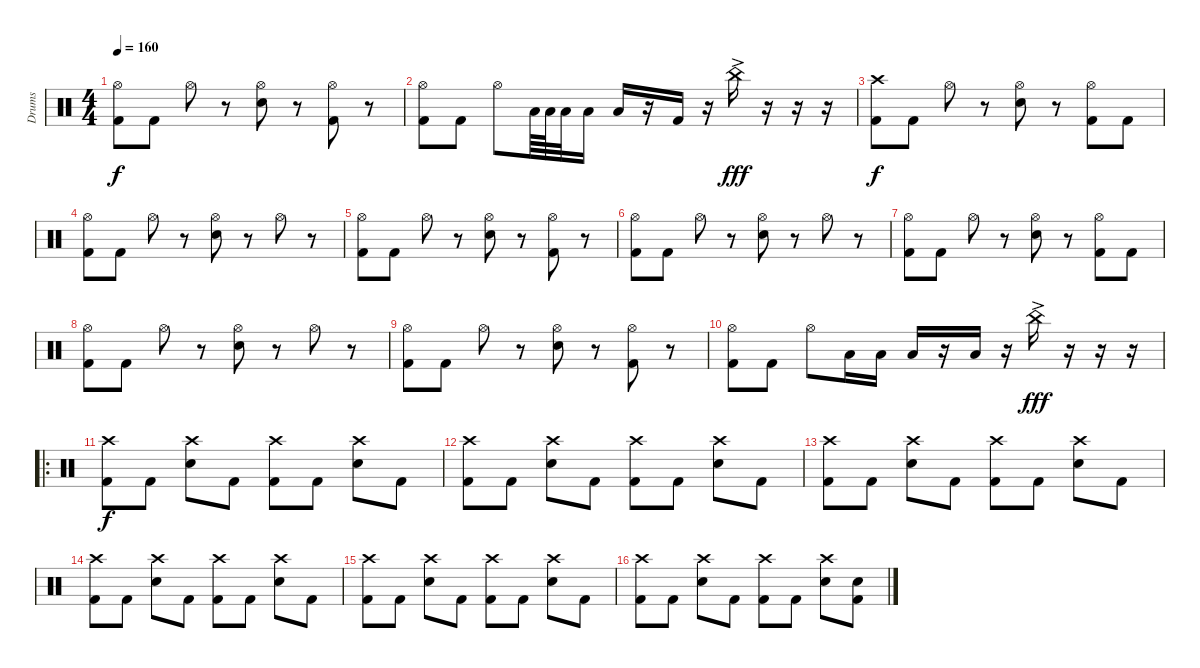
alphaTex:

\track ("Drums" "Drums") {instrument percussion}
\staff {score}
\articulation defaults
\ts (4 4)
\tempo 160
\clef neutral
\ks c
("Kick (hit) 2" "Hi-Hat (open)").8{dy f} "Kick (hit) 2".8 "Hi-Hat (open)".8 r.8 ("Electric Snare (hit)" "Hi-Hat (open)").8 r.8 ("Kick (hit) 2" "Hi-Hat (open)").8 r.8 |
("Kick (hit) 2" "Hi-Hat (open)").8 "Kick (hit) 2".8 "Hi-Hat (open)".8 "Low Floor Tom (hit)".64 "Low Floor Tom (hit)".64 "Low Floor Tom (hit)".32 "Low Floor Tom (hit)".16 "Low Floor Tom (hit)".16 r.16 "Kick (hit) 2".16 r.16 "China (hit)"{ac}.16{dy fff} r.16 r.16 r.16 |
("Kick (hit) 2" "Crash high (hit)").8{dy f} "Kick (hit) 2".8 "Hi-Hat (open)".8 r.8 ("Electric Snare (hit)" "Hi-Hat (open)").8 r.8 ("Kick (hit) 2" "Hi-Hat (open)").8 "Kick (hit) 2".8 |
("Kick (hit) 2" "Hi-Hat (open)").8 "Kick (hit) 2".8 "Hi-Hat (open)".8 r.8 ("Electric Snare (hit)" "Hi-Hat (open)").8 r.8 "Hi-Hat (open)".8 r.8 |
("Kick (hit) 2" "Hi-Hat (open)").8 "Kick (hit) 2".8 "Hi-Hat (open)".8 r.8 ("Electric Snare (hit)" "Hi-Hat (open)").8 r.8 ("Kick (hit) 2" "Hi-Hat (open)").8 r.8 |
("Kick (hit) 2" "Hi-Hat (open)").8 "Kick (hit) 2".8 "Hi-Hat (open)".8 r.8 ("Electric Snare (hit)" "Hi-Hat (open)").8 r.8 "Hi-Hat (open)".8 r.8 |
("Kick (hit) 2" "Hi-Hat (open)").8 "Kick (hit) 2".8 "Hi-Hat (open)".8 r.8 ("Electric Snare (hit)" "Hi-Hat (open)").8 r.8 ("Kick (hit) 2" "Hi-Hat (open)").8 "Kick (hit) 2".8 |
("Kick (hit) 2" "Hi-Hat (open)").8 "Kick (hit) 2".8 "Hi-Hat (open)".8 r.8 ("Electric Snare (hit)" "Hi-Hat (open)").8 r.8 "Hi-Hat (open)".8 r.8 |
("Kick (hit) 2" "Hi-Hat (open)").8 "Kick (hit) 2".8 "Hi-Hat (open)".8 r.8 ("Electric Snare (hit)" "Hi-Hat (open)").8 r.8 ("Kick (hit) 2" "Hi-Hat (open)").8 r.8 |
("Kick (hit) 2" "Hi-Hat (open)").8 "Kick (hit) 2".8 "Hi-Hat (open)".8 "Low Floor Tom (hit)".16 "Low Floor Tom (hit)".16 "Low Floor Tom (hit)".16 r.16 "Low Floor Tom (hit)".16 r.16 "China (hit)"{ac}.16{dy fff} r.16 r.16 r.16 |
\ro
("Kick (hit) 2" "Crash high (hit)").8{dy f} "Kick (hit) 2".8 ("Electric Snare (hit)" "Crash high (hit)").8 "Kick (hit) 2".8 ("Kick (hit) 2" "Crash high (hit)").8 "Kick (hit) 2".8 ("Electric Snare (hit)" "Crash high (hit)").8 "Kick (hit) 2".8 |
("Kick (hit) 2" "Crash high (hit)").8 "Kick (hit) 2".8 ("Electric Snare (hit)" "Crash high (hit)").8 "Kick (hit) 2".8 ("Kick (hit) 2" "Crash high (hit)").8 "Kick (hit) 2".8 ("Electric Snare (hit)" "Crash high (hit)").8 "Kick (hit) 2".8 |
("Kick (hit) 2" "Crash high (hit)").8 "Kick (hit) 2".8 ("Electric Snare (hit)" "Crash high (hit)").8 "Kick (hit) 2".8 ("Kick (hit) 2" "Crash high (hit)").8 "Kick (hit) 2".8 ("Electric Snare (hit)" "Crash high (hit)").8 "Kick (hit) 2".8 |
("Kick (hit) 2" "Crash high (hit)").8 "Kick (hit) 2".8 ("Electric Snare (hit)" "Crash high (hit)").8 "Kick (hit) 2".8 ("Kick (hit) 2" "Crash high (hit)").8 "Kick (hit) 2".8 ("Electric Snare (hit)" "Crash high (hit)").8 "Kick (hit) 2".8 |
("Kick (hit) 2" "Crash high (hit)").8 "Kick (hit) 2".8 ("Electric Snare (hit)" "Crash high (hit)").8 "Kick (hit) 2".8 ("Kick (hit) 2" "Crash high (hit)").8 "Kick (hit) 2".8 ("Electric Snare (hit)" "Crash high (hit)").8 "Kick (hit) 2".8 |
("Kick (hit) 2" "Crash high (hit)").8 "Kick (hit) 2".8 ("Electric Snare (hit)" "Crash high (hit)").8 "Kick (hit) 2".8 ("Kick (hit) 2" "Crash high (hit)").8 "Kick (hit) 2".8 ("Electric Snare (hit)" "Crash high (hit)").8 ("Kick (hit) 2" "Electric Snare (hit)").8
